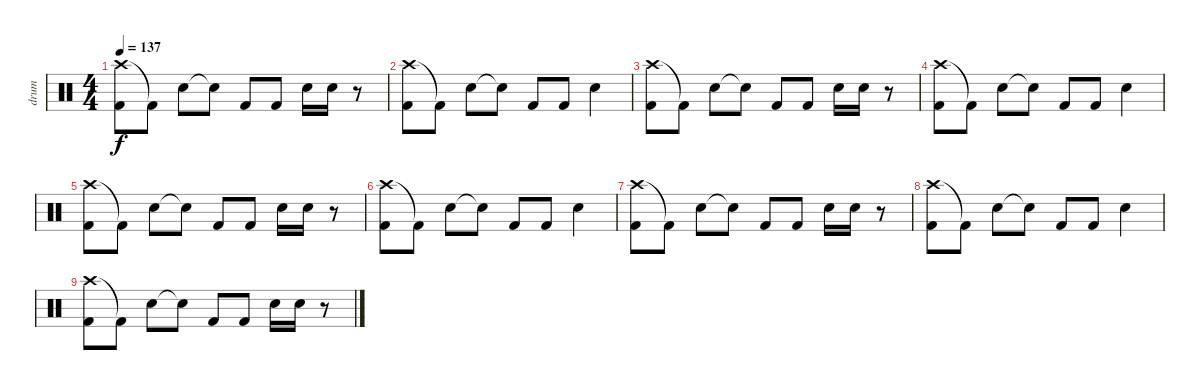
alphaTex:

\track ("drum" "drum") {instrument percussion}
\staff {score}
\articulation defaults
\ts (4 4)
\tempo 137
\clef neutral
\ks c
("Crash high (hit)" "Kick (hit) 2").8{dy f} "Kick (hit) 2"{t}.8 "Electric Snare (hit)".8 "Snare (hit)"{t}.8 "Kick (hit) 2".8 "Kick (hit) 2".8 "Electric Snare (hit)".16 "Electric Snare (hit)".16 r.8 |
("Crash high (hit)" "Kick (hit) 2").8 "Kick (hit) 2"{t}.8 "Electric Snare (hit)".8 "Snare (hit)"{t}.8 "Kick (hit) 2".8 "Kick (hit) 2".8 "Electric Snare (hit)".4 |
("Crash high (hit)" "Kick (hit) 2").8 "Kick (hit) 2"{t}.8 "Electric Snare (hit)".8 "Snare (hit)"{t}.8 "Kick (hit) 2".8 "Kick (hit) 2".8 "Electric Snare (hit)".16 "Electric Snare (hit)".16 r.8 |
("Crash high (hit)" "Kick (hit) 2").8 "Kick (hit) 2"{t}.8 "Electric Snare (hit)".8 "Snare (hit)"{t}.8 "Kick (hit) 2".8 "Kick (hit) 2".8 "Electric Snare (hit)".4 |
("Crash high (hit)" "Kick (hit) 2").8 "Kick (hit) 2"{t}.8 "Electric Snare (hit)".8 "Snare (hit)"{t}.8 "Kick (hit) 2".8 "Kick (hit) 2".8 "Electric Snare (hit)".16 "Electric Snare (hit)".16 r.8 |
("Crash high (hit)" "Kick (hit) 2").8 "Kick (hit) 2"{t}.8 "Electric Snare (hit)".8 "Snare (hit)"{t}.8 "Kick (hit) 2".8 "Kick (hit) 2".8 "Electric Snare (hit)".4 |
("Crash high (hit)" "Kick (hit) 2").8 "Kick (hit) 2"{t}.8 "Electric Snare (hit)".8 "Snare (hit)"{t}.8 "Kick (hit) 2".8 "Kick (hit) 2".8 "Electric Snare (hit)".16 "Electric Snare (hit)".16 r.8 |
("Crash high (hit)" "Kick (hit) 2").8 "Kick (hit) 2"{t}.8 "Electric Snare (hit)".8 "Snare (hit)"{t}.8 "Kick (hit) 2".8 "Kick (hit) 2".8 "Electric Snare (hit)".4 |
("Crash high (hit)" "Kick (hit) 2").8 "Kick (hit) 2"{t}.8 "Electric Snare (hit)".8 "Snare (hit)"{t}.8 "Kick (hit) 2".8 "Kick (hit) 2".8 "Electric Snare (hit)".16 "Electric Snare (hit)".16 r.8
